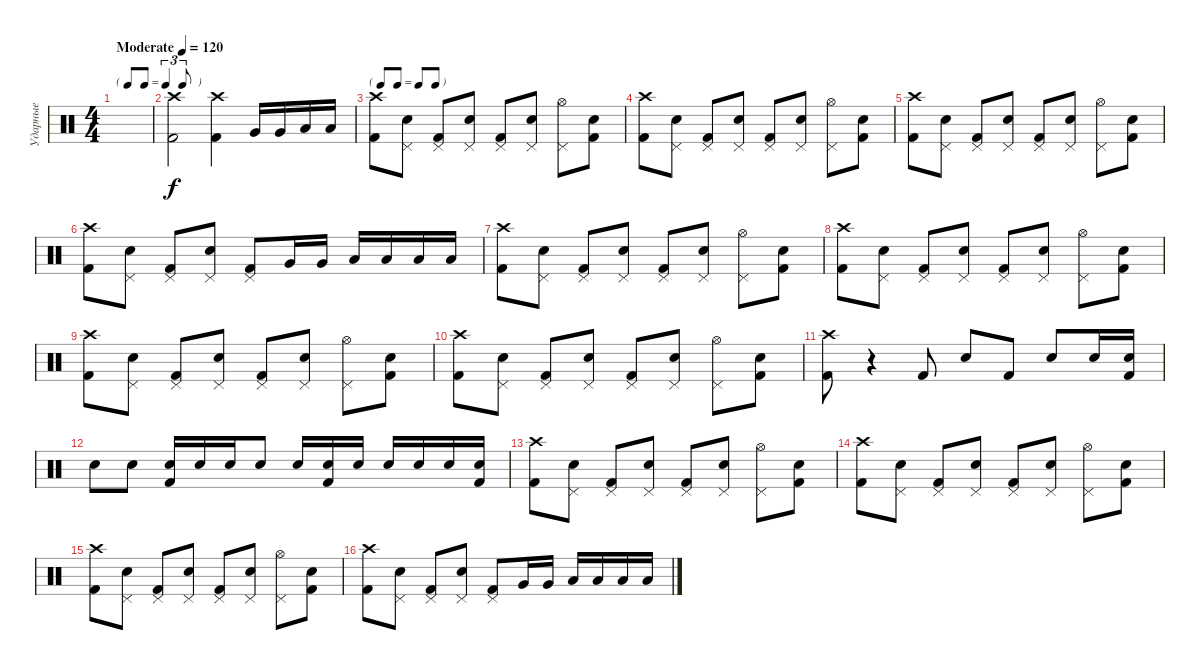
\track ("Ударные" "Ударные") {instrument percussion}
\staff {score}
\articulation defaults
\ts (4 4)
\tf triplet8th
\tempo (120 "Moderate")
\clef neutral
\ks c
|
("Crash high (hit)" "Kick (hit) 2").2 ("Crash high (hit)" "Kick (hit) 2").4 "Very Low Tom (hit)".16 "Very Low Tom (hit)".16 "Low Floor Tom (hit)".16 "Low Floor Tom (hit)".16 |
\tf none
("Crash high (hit)" "Kick (hit) 2").8 ("Electric Snare (hit)" "Pedal Hi-Hat (hit)").8 ("Pedal Hi-Hat (hit)" "Kick (hit) 2").8 ("Electric Snare (hit)" "Pedal Hi-Hat (hit)").8 ("Pedal Hi-Hat (hit)" "Kick (hit) 2").8 ("Electric Snare (hit)" "Pedal Hi-Hat (hit)").8 ("Hi-Hat (open)" "Pedal Hi-Hat (hit)").8 ("Electric Snare (hit)" "Kick (hit) 2").8 |
("Crash high (hit)" "Kick (hit) 2").8 ("Electric Snare (hit)" "Pedal Hi-Hat (hit)").8 ("Pedal Hi-Hat (hit)" "Kick (hit) 2").8 ("Electric Snare (hit)" "Pedal Hi-Hat (hit)").8 ("Pedal Hi-Hat (hit)" "Kick (hit) 2").8 ("Electric Snare (hit)" "Pedal Hi-Hat (hit)").8 ("Hi-Hat (open)" "Pedal Hi-Hat (hit)").8 ("Electric Snare (hit)" "Kick (hit) 2").8 |
("Crash high (hit)" "Kick (hit) 2").8 ("Electric Snare (hit)" "Pedal Hi-Hat (hit)").8 ("Pedal Hi-Hat (hit)" "Kick (hit) 2").8 ("Electric Snare (hit)" "Pedal Hi-Hat (hit)").8 ("Pedal Hi-Hat (hit)" "Kick (hit) 2").8 ("Electric Snare (hit)" "Pedal Hi-Hat (hit)").8 ("Hi-Hat (open)" "Pedal Hi-Hat (hit)").8 ("Electric Snare (hit)" "Kick (hit) 2").8 |
("Crash high (hit)" "Kick (hit) 2").8 ("Electric Snare (hit)" "Pedal Hi-Hat (hit)").8 ("Pedal Hi-Hat (hit)" "Kick (hit) 2").8 ("Electric Snare (hit)" "Pedal Hi-Hat (hit)").8 ("Pedal Hi-Hat (hit)" "Kick (hit) 2").8 "Very Low Tom (hit)".16 "Very Low Tom (hit)".16 "Low Floor Tom (hit)".16 "Low Floor Tom (hit)".16 "Low Floor Tom (hit)".16 "Low Tom (hit)".16 |
("Crash high (hit)" "Kick (hit) 2").8 ("Electric Snare (hit)" "Pedal Hi-Hat (hit)").8 ("Pedal Hi-Hat (hit)" "Kick (hit) 2").8 ("Electric Snare (hit)" "Pedal Hi-Hat (hit)").8 ("Pedal Hi-Hat (hit)" "Kick (hit) 2").8 ("Electric Snare (hit)" "Pedal Hi-Hat (hit)").8 ("Hi-Hat (open)" "Pedal Hi-Hat (hit)").8 ("Electric Snare (hit)" "Kick (hit) 2").8 |
("Crash high (hit)" "Kick (hit) 2").8 ("Electric Snare (hit)" "Pedal Hi-Hat (hit)").8 ("Pedal Hi-Hat (hit)" "Kick (hit) 2").8 ("Electric Snare (hit)" "Pedal Hi-Hat (hit)").8 ("Pedal Hi-Hat (hit)" "Kick (hit) 2").8 ("Electric Snare (hit)" "Pedal Hi-Hat (hit)").8 ("Hi-Hat (open)" "Pedal Hi-Hat (hit)").8 ("Electric Snare (hit)" "Kick (hit) 2").8 |
("Crash high (hit)" "Kick (hit) 2").8 ("Electric Snare (hit)" "Pedal Hi-Hat (hit)").8 ("Pedal Hi-Hat (hit)" "Kick (hit) 2").8 ("Electric Snare (hit)" "Pedal Hi-Hat (hit)").8 ("Pedal Hi-Hat (hit)" "Kick (hit) 2").8 ("Electric Snare (hit)" "Pedal Hi-Hat (hit)").8 ("Hi-Hat (open)" "Pedal Hi-Hat (hit)").8 ("Electric Snare (hit)" "Kick (hit) 2").8 |
("Crash high (hit)" "Kick (hit) 2").8 ("Electric Snare (hit)" "Pedal Hi-Hat (hit)").8 ("Pedal Hi-Hat (hit)" "Kick (hit) 2").8 ("Electric Snare (hit)" "Pedal Hi-Hat (hit)").8 ("Pedal Hi-Hat (hit)" "Kick (hit) 2").8 ("Electric Snare (hit)" "Pedal Hi-Hat (hit)").8 ("Hi-Hat (open)" "Pedal Hi-Hat (hit)").8 ("Electric Snare (hit)" "Kick (hit) 2").8 |
("Crash high (hit)" "Kick (hit) 2").8 r.4 "Kick (hit) 2".8 "Electric Snare (hit)".8 "Kick (hit) 2".8 "Electric Snare (hit)".8 "Electric Snare (hit)".16 ("Kick (hit) 2" "Electric Snare (hit)").16 |
"Electric Snare (hit)".8 "Electric Snare (hit)".8 ("Kick (hit) 2" "Electric Snare (hit)").16 "Electric Snare (hit)".16 "Electric Snare (hit)".16 "Electric Snare (hit)".8 "Electric Snare (hit)".16 ("Kick (hit) 2" "Electric Snare (hit)").16 "Electric Snare (hit)".16 "Electric Snare (hit)".16 "Electric Snare (hit)".16 "Electric Snare (hit)".16 ("Kick (hit) 2" "Electric Snare (hit)").16 |
("Crash high (hit)" "Kick (hit) 2").8 ("Electric Snare (hit)" "Pedal Hi-Hat (hit)").8 ("Pedal Hi-Hat (hit)" "Kick (hit) 2").8 ("Electric Snare (hit)" "Pedal Hi-Hat (hit)").8 ("Pedal Hi-Hat (hit)" "Kick (hit) 2").8 ("Electric Snare (hit)" "Pedal Hi-Hat (hit)").8 ("Hi-Hat (open)" "Pedal Hi-Hat (hit)").8 ("Electric Snare (hit)" "Kick (hit) 2").8 |
("Crash high (hit)" "Kick (hit) 2").8 ("Electric Snare (hit)" "Pedal Hi-Hat (hit)").8 ("Pedal Hi-Hat (hit)" "Kick (hit) 2").8 ("Electric Snare (hit)" "Pedal Hi-Hat (hit)").8 ("Pedal Hi-Hat (hit)" "Kick (hit) 2").8 ("Electric Snare (hit)" "Pedal Hi-Hat (hit)").8 ("Hi-Hat (open)" "Pedal Hi-Hat (hit)").8 ("Electric Snare (hit)" "Kick (hit) 2").8 |
("Crash high (hit)" "Kick (hit) 2").8 ("Electric Snare (hit)" "Pedal Hi-Hat (hit)").8 ("Pedal Hi-Hat (hit)" "Kick (hit) 2").8 ("Electric Snare (hit)" "Pedal Hi-Hat (hit)").8 ("Pedal Hi-Hat (hit)" "Kick (hit) 2").8 ("Electric Snare (hit)" "Pedal Hi-Hat (hit)").8 ("Hi-Hat (open)" "Pedal Hi-Hat (hit)").8 ("Electric Snare (hit)" "Kick (hit) 2").8 |
("Crash high (hit)" "Kick (hit) 2").8 ("Electric Snare (hit)" "Pedal Hi-Hat (hit)").8 ("Pedal Hi-Hat (hit)" "Kick (hit) 2").8 ("Electric Snare (hit)" "Pedal Hi-Hat (hit)").8 ("Pedal Hi-Hat (hit)" "Kick (hit) 2").8 "Very Low Tom (hit)".16 "Very Low Tom (hit)".16 "Low Floor Tom (hit)".16 "Low Floor Tom (hit)".16 "Low Floor Tom (hit)".16 "Low Tom (hit)".16
